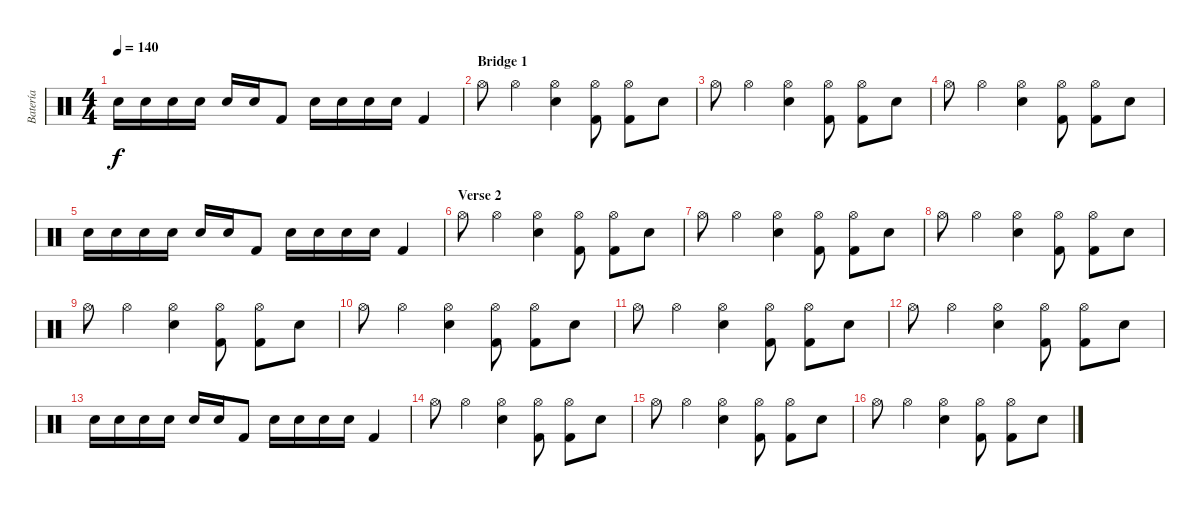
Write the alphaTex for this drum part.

\track ("Batería" "Batería") {instrument percussion}
\staff {score}
\articulation defaults
\ts (4 4)
\tempo 140
\clef neutral
\ks c "Snare (hit) 2".16{dy f} "Snare (hit) 2".16 "Snare (hit) 2".16 "Snare (hit) 2".16 "Snare (hit) 2".16 "Snare (hit) 2".16 "Kick (hit) 2".8 "Snare (hit) 2".16 "Snare (hit) 2".16 "Snare (hit) 2".16 "Snare (hit) 2".16 "Kick (hit) 2".4
|
\section ("" "Bridge 1")
"Hi-Hat (open)".8 "Hi-Hat (open)".4 ("Hi-Hat (open)" "Snare (hit) 2").4 ("Hi-Hat (open)" "Kick (hit) 2").8 ("Hi-Hat (open)" "Kick (hit) 2").8 "Snare (hit) 2".8 |
"Hi-Hat (open)".8 "Hi-Hat (open)".4 ("Hi-Hat (open)" "Snare (hit) 2").4 ("Hi-Hat (open)" "Kick (hit) 2").8 ("Hi-Hat (open)" "Kick (hit) 2").8 "Snare (hit) 2".8 |
"Hi-Hat (open)".8 "Hi-Hat (open)".4 ("Hi-Hat (open)" "Snare (hit) 2").4 ("Hi-Hat (open)" "Kick (hit) 2").8 ("Hi-Hat (open)" "Kick (hit) 2").8 "Snare (hit) 2".8 |
"Snare (hit) 2".16 "Snare (hit) 2".16 "Snare (hit) 2".16 "Snare (hit) 2".16 "Snare (hit) 2".16 "Snare (hit) 2".16 "Kick (hit) 2".8 "Snare (hit) 2".16 "Snare (hit) 2".16 "Snare (hit) 2".16 "Snare (hit) 2".16 "Kick (hit) 2".4 |
\section ("" "Verse 2")
"Hi-Hat (open)".8 "Hi-Hat (open)".4 ("Hi-Hat (open)" "Snare (hit) 2").4 ("Hi-Hat (open)" "Kick (hit) 2").8 ("Hi-Hat (open)" "Kick (hit) 2").8 "Snare (hit) 2".8 |
"Hi-Hat (open)".8 "Hi-Hat (open)".4 ("Hi-Hat (open)" "Snare (hit) 2").4 ("Hi-Hat (open)" "Kick (hit) 2").8 ("Hi-Hat (open)" "Kick (hit) 2").8 "Snare (hit) 2".8 |
"Hi-Hat (open)".8 "Hi-Hat (open)".4 ("Hi-Hat (open)" "Snare (hit) 2").4 ("Hi-Hat (open)" "Kick (hit) 2").8 ("Hi-Hat (open)" "Kick (hit) 2").8 "Snare (hit) 2".8 |
"Hi-Hat (open)".8 "Hi-Hat (open)".4 ("Hi-Hat (open)" "Snare (hit) 2").4 ("Hi-Hat (open)" "Kick (hit) 2").8 ("Hi-Hat (open)" "Kick (hit) 2").8 "Snare (hit) 2".8 |
"Hi-Hat (open)".8 "Hi-Hat (open)".4 ("Hi-Hat (open)" "Snare (hit) 2").4 ("Hi-Hat (open)" "Kick (hit) 2").8 ("Hi-Hat (open)" "Kick (hit) 2").8 "Snare (hit) 2".8 |
"Hi-Hat (open)".8 "Hi-Hat (open)".4 ("Hi-Hat (open)" "Snare (hit) 2").4 ("Hi-Hat (open)" "Kick (hit) 2").8 ("Hi-Hat (open)" "Kick (hit) 2").8 "Snare (hit) 2".8 |
"Hi-Hat (open)".8 "Hi-Hat (open)".4 ("Hi-Hat (open)" "Snare (hit) 2").4 ("Hi-Hat (open)" "Kick (hit) 2").8 ("Hi-Hat (open)" "Kick (hit) 2").8 "Snare (hit) 2".8 |
"Snare (hit) 2".16 "Snare (hit) 2".16 "Snare (hit) 2".16 "Snare (hit) 2".16 "Snare (hit) 2".16 "Snare (hit) 2".16 "Kick (hit) 2".8 "Snare (hit) 2".16 "Snare (hit) 2".16 "Snare (hit) 2".16 "Snare (hit) 2".16 "Kick (hit) 2".4 |
"Hi-Hat (open)".8 "Hi-Hat (open)".4 ("Hi-Hat (open)" "Snare (hit) 2").4 ("Hi-Hat (open)" "Kick (hit) 2").8 ("Hi-Hat (open)" "Kick (hit) 2").8 "Snare (hit) 2".8 |
"Hi-Hat (open)".8 "Hi-Hat (open)".4 ("Hi-Hat (open)" "Snare (hit) 2").4 ("Hi-Hat (open)" "Kick (hit) 2").8 ("Hi-Hat (open)" "Kick (hit) 2").8 "Snare (hit) 2".8 |
"Hi-Hat (open)".8 "Hi-Hat (open)".4 ("Hi-Hat (open)" "Snare (hit) 2").4 ("Hi-Hat (open)" "Kick (hit) 2").8 ("Hi-Hat (open)" "Kick (hit) 2").8 "Snare (hit) 2".8
